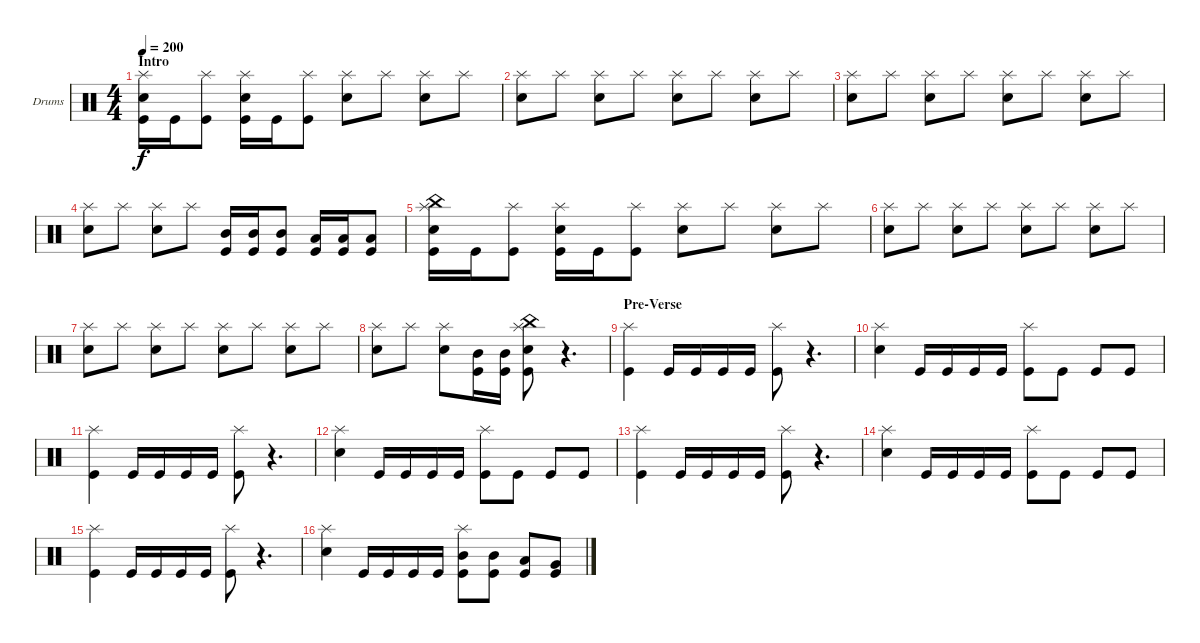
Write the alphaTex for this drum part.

\defaultSystemsLayout 4
\bracketExtendMode groupsimilarinstruments
\firstSystemTrackNameOrientation horizontal
\otherSystemsTrackNameOrientation horizontal
\track ("Drumkit" "Drums") {instrument percussion}
\staff {score}
\articulation defaults
\ts (4 4)
\section ("" "Intro")
\tempo 200
\clef neutral
\ks c
("Splash (hit)" "Snare (hit) 2" "Kick (hit)").16{dy f} "Kick (hit)".16 ("Splash (hit)" "Kick (hit)").8 ("Splash (hit)" "Snare (hit) 2" "Kick (hit)").16 "Kick (hit)".16 ("Splash (hit)" "Kick (hit)").8 ("Splash (hit)" "Snare (hit) 2").8 "Splash (hit)".8 ("Splash (hit)" "Snare (hit) 2").8 "Splash (hit)".8 |
("Splash (hit)" "Snare (hit) 2").8 "Splash (hit)".8 ("Splash (hit)" "Snare (hit) 2").8 "Splash (hit)".8 ("Splash (hit)" "Snare (hit) 2").8 "Splash (hit)".8 ("Splash (hit)" "Snare (hit) 2").8 "Splash (hit)".8 |
("Splash (hit)" "Snare (hit) 2").8 "Splash (hit)".8 ("Splash (hit)" "Snare (hit) 2").8 "Splash (hit)".8 ("Splash (hit)" "Snare (hit) 2").8 "Splash (hit)".8 ("Splash (hit)" "Snare (hit) 2").8 "Splash (hit)".8 |
("Splash (hit)" "Snare (hit) 2").8 "Splash (hit)".8 ("Splash (hit)" "Snare (hit) 2").8 "Splash (hit)".8 ("Kick (hit)" "Mid Tom (hit)").16 ("Kick (hit)" "Mid Tom (hit)").16 ("Kick (hit)" "Mid Tom (hit)").8 ("Kick (hit)" "Low Tom (hit)").16 ("Kick (hit)" "Low Tom (hit)").16 ("Kick (hit)" "Low Tom (hit)").8 |
("Splash (hit)" "Snare (hit) 2" "Kick (hit)" "China (hit)").16 "Kick (hit)".16 ("Splash (hit)" "Kick (hit)").8 ("Splash (hit)" "Snare (hit) 2" "Kick (hit)").16 "Kick (hit)".16 ("Splash (hit)" "Kick (hit)").8 ("Splash (hit)" "Snare (hit) 2").8 "Splash (hit)".8 ("Splash (hit)" "Snare (hit) 2").8 "Splash (hit)".8 |
("Splash (hit)" "Snare (hit) 2").8 "Splash (hit)".8 ("Splash (hit)" "Snare (hit) 2").8 "Splash (hit)".8 ("Splash (hit)" "Snare (hit) 2").8 "Splash (hit)".8 ("Splash (hit)" "Snare (hit) 2").8 "Splash (hit)".8 |
("Splash (hit)" "Snare (hit) 2").8 "Splash (hit)".8 ("Splash (hit)" "Snare (hit) 2").8 "Splash (hit)".8 ("Splash (hit)" "Snare (hit) 2").8 "Splash (hit)".8 ("Splash (hit)" "Snare (hit) 2").8 "Splash (hit)".8 |
("Splash (hit)" "Snare (hit) 2").8 "Splash (hit)".8 ("Splash (hit)" "Snare (hit) 2").8 ("Kick (hit)" "Mid Tom (hit)").16 ("Kick (hit)" "Mid Tom (hit)").16 ("Splash (hit)" "Snare (hit) 2" "China (hit)" "Kick (hit)").8 r.4{d} |
\section ("" "Pre-Verse")
("Kick (hit)" "Splash (hit)").4 "Kick (hit)".16 "Kick (hit)".16 "Kick (hit)".16 "Kick (hit)".16 ("Kick (hit)" "Splash (hit)").8 r.4{d} |
("Snare (hit) 2" "Splash (hit)").4 "Kick (hit)".16 "Kick (hit)".16 "Kick (hit)".16 "Kick (hit)".16 ("Kick (hit)" "Splash (hit)").8 "Kick (hit)".8 "Kick (hit)".8 "Kick (hit)".8 |
("Kick (hit)" "Splash (hit)").4 "Kick (hit)".16 "Kick (hit)".16 "Kick (hit)".16 "Kick (hit)".16 ("Kick (hit)" "Splash (hit)").8 r.4{d} |
("Snare (hit) 2" "Splash (hit)").4 "Kick (hit)".16 "Kick (hit)".16 "Kick (hit)".16 "Kick (hit)".16 ("Kick (hit)" "Splash (hit)").8 "Kick (hit)".8 "Kick (hit)".8 "Kick (hit)".8 |
("Kick (hit)" "Splash (hit)").4 "Kick (hit)".16 "Kick (hit)".16 "Kick (hit)".16 "Kick (hit)".16 ("Kick (hit)" "Splash (hit)").8 r.4{d} |
("Snare (hit) 2" "Splash (hit)").4 "Kick (hit)".16 "Kick (hit)".16 "Kick (hit)".16 "Kick (hit)".16 ("Kick (hit)" "Splash (hit)").8 "Kick (hit)".8 "Kick (hit)".8 "Kick (hit)".8 |
("Kick (hit)" "Splash (hit)").4 "Kick (hit)".16 "Kick (hit)".16 "Kick (hit)".16 "Kick (hit)".16 ("Kick (hit)" "Splash (hit)").8 r.4{d} |
("Snare (hit) 2" "Splash (hit)").4 "Kick (hit)".16 "Kick (hit)".16 "Kick (hit)".16 "Kick (hit)".16 ("Kick (hit)" "Splash (hit)" "Mid Tom (hit)").8 ("Kick (hit)" "Mid Tom (hit)").8 ("Kick (hit)" "Low Tom (hit)").8 ("Kick (hit)" "Very Low Tom (hit)").8
